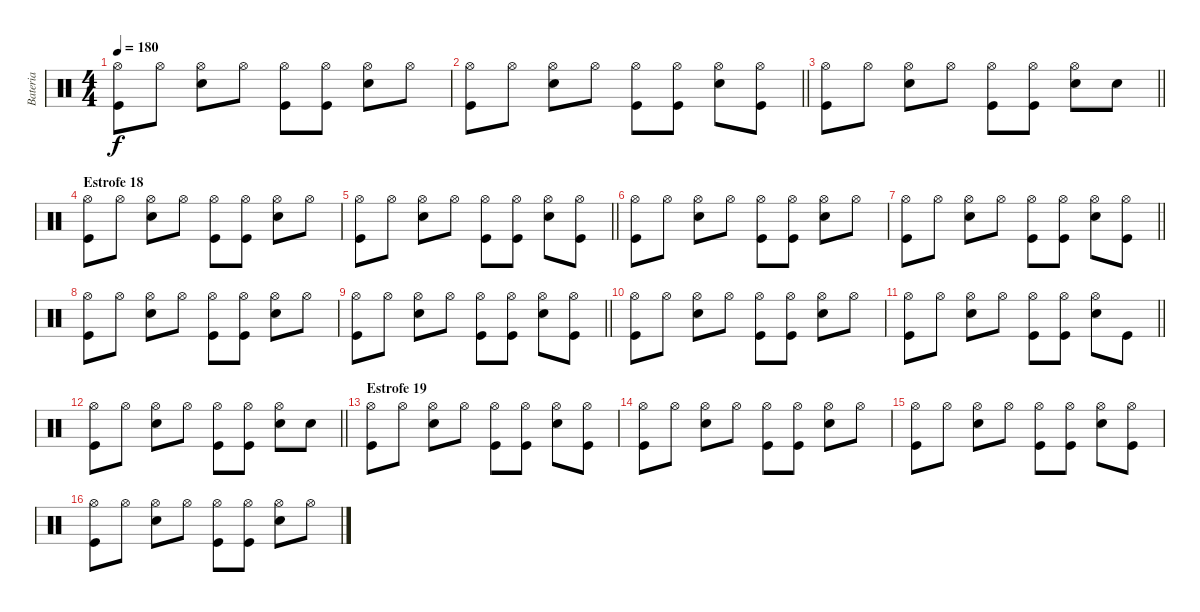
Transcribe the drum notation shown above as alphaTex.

\track ("Bateria" "Bateria") {instrument percussion}
\staff {score}
\articulation defaults
\ts (4 4)
\tempo 180
\clef neutral
\ks c
("Hi-Hat (open)" "Kick (hit)").8{dy f} "Hi-Hat (open)".8 ("Hi-Hat (open)" "Snare (hit) 2").8 "Hi-Hat (open)".8 ("Hi-Hat (open)" "Kick (hit)").8 ("Hi-Hat (open)" "Kick (hit)").8 ("Hi-Hat (open)" "Snare (hit) 2").8 "Hi-Hat (open)".8 |
\barLineRight lightlight
("Hi-Hat (open)" "Kick (hit)").8 "Hi-Hat (open)".8 ("Hi-Hat (open)" "Snare (hit) 2").8 "Hi-Hat (open)".8 ("Hi-Hat (open)" "Kick (hit)").8 ("Hi-Hat (open)" "Kick (hit)").8 ("Hi-Hat (open)" "Snare (hit) 2").8 ("Hi-Hat (open)" "Kick (hit)").8 |
\barLineRight lightlight
("Hi-Hat (open)" "Kick (hit)").8 "Hi-Hat (open)".8 ("Hi-Hat (open)" "Snare (hit) 2").8 "Hi-Hat (open)".8 ("Hi-Hat (open)" "Kick (hit)").8 ("Hi-Hat (open)" "Kick (hit)").8 ("Hi-Hat (open)" "Snare (hit) 2").8 "Snare (hit) 2".8 |
\section ("" "Estrofe 18")
("Hi-Hat (open)" "Kick (hit)").8 "Hi-Hat (open)".8 ("Hi-Hat (open)" "Snare (hit) 2").8 "Hi-Hat (open)".8 ("Hi-Hat (open)" "Kick (hit)").8 ("Hi-Hat (open)" "Kick (hit)").8 ("Hi-Hat (open)" "Snare (hit) 2").8 "Hi-Hat (open)".8 |
\barLineRight lightlight
("Hi-Hat (open)" "Kick (hit)").8 "Hi-Hat (open)".8 ("Hi-Hat (open)" "Snare (hit) 2").8 "Hi-Hat (open)".8 ("Hi-Hat (open)" "Kick (hit)").8 ("Hi-Hat (open)" "Kick (hit)").8 ("Hi-Hat (open)" "Snare (hit) 2").8 ("Hi-Hat (open)" "Kick (hit)").8 |
("Hi-Hat (open)" "Kick (hit)").8 "Hi-Hat (open)".8 ("Hi-Hat (open)" "Snare (hit) 2").8 "Hi-Hat (open)".8 ("Hi-Hat (open)" "Kick (hit)").8 ("Hi-Hat (open)" "Kick (hit)").8 ("Hi-Hat (open)" "Snare (hit) 2").8 "Hi-Hat (open)".8 |
\barLineRight lightlight
("Hi-Hat (open)" "Kick (hit)").8 "Hi-Hat (open)".8 ("Hi-Hat (open)" "Snare (hit) 2").8 "Hi-Hat (open)".8 ("Hi-Hat (open)" "Kick (hit)").8 ("Hi-Hat (open)" "Kick (hit)").8 ("Hi-Hat (open)" "Snare (hit) 2").8 ("Hi-Hat (open)" "Kick (hit)").8 |
("Hi-Hat (open)" "Kick (hit)").8 "Hi-Hat (open)".8 ("Hi-Hat (open)" "Snare (hit) 2").8 "Hi-Hat (open)".8 ("Hi-Hat (open)" "Kick (hit)").8 ("Hi-Hat (open)" "Kick (hit)").8 ("Hi-Hat (open)" "Snare (hit) 2").8 "Hi-Hat (open)".8 |
\barLineRight lightlight
("Hi-Hat (open)" "Kick (hit)").8 "Hi-Hat (open)".8 ("Hi-Hat (open)" "Snare (hit) 2").8 "Hi-Hat (open)".8 ("Hi-Hat (open)" "Kick (hit)").8 ("Hi-Hat (open)" "Kick (hit)").8 ("Hi-Hat (open)" "Snare (hit) 2").8 ("Hi-Hat (open)" "Kick (hit)").8 |
("Hi-Hat (open)" "Kick (hit)").8 "Hi-Hat (open)".8 ("Hi-Hat (open)" "Snare (hit) 2").8 "Hi-Hat (open)".8 ("Hi-Hat (open)" "Kick (hit)").8 ("Hi-Hat (open)" "Kick (hit)").8 ("Hi-Hat (open)" "Snare (hit) 2").8 "Hi-Hat (open)".8 |
\barLineRight lightlight
("Hi-Hat (open)" "Kick (hit)").8 "Hi-Hat (open)".8 ("Hi-Hat (open)" "Snare (hit) 2").8 "Hi-Hat (open)".8 ("Hi-Hat (open)" "Kick (hit)").8 ("Hi-Hat (open)" "Kick (hit)").8 ("Hi-Hat (open)" "Snare (hit) 2").8 "Kick (hit)".8 |
\barLineRight lightlight
("Hi-Hat (open)" "Kick (hit)").8 "Hi-Hat (open)".8 ("Hi-Hat (open)" "Snare (hit) 2").8 "Hi-Hat (open)".8 ("Hi-Hat (open)" "Kick (hit)").8 ("Hi-Hat (open)" "Kick (hit)").8 ("Hi-Hat (open)" "Snare (hit) 2").8 "Snare (hit) 2".8 |
\section ("" "Estrofe 19")
("Hi-Hat (open)" "Kick (hit)").8 "Hi-Hat (open)".8 ("Hi-Hat (open)" "Snare (hit) 2").8 "Hi-Hat (open)".8 ("Hi-Hat (open)" "Kick (hit)").8 ("Hi-Hat (open)" "Kick (hit)").8 ("Hi-Hat (open)" "Snare (hit) 2").8 ("Hi-Hat (open)" "Kick (hit)").8 |
("Hi-Hat (open)" "Kick (hit)").8 "Hi-Hat (open)".8 ("Hi-Hat (open)" "Snare (hit) 2").8 "Hi-Hat (open)".8 ("Hi-Hat (open)" "Kick (hit)").8 ("Hi-Hat (open)" "Kick (hit)").8 ("Hi-Hat (open)" "Snare (hit) 2").8 "Hi-Hat (open)".8 |
("Hi-Hat (open)" "Kick (hit)").8 "Hi-Hat (open)".8 ("Hi-Hat (open)" "Snare (hit) 2").8 "Hi-Hat (open)".8 ("Hi-Hat (open)" "Kick (hit)").8 ("Hi-Hat (open)" "Kick (hit)").8 ("Hi-Hat (open)" "Snare (hit) 2").8 ("Hi-Hat (open)" "Kick (hit)").8 |
("Hi-Hat (open)" "Kick (hit)").8 "Hi-Hat (open)".8 ("Hi-Hat (open)" "Snare (hit) 2").8 "Hi-Hat (open)".8 ("Hi-Hat (open)" "Kick (hit)").8 ("Hi-Hat (open)" "Kick (hit)").8 ("Hi-Hat (open)" "Snare (hit) 2").8 "Hi-Hat (open)".8
